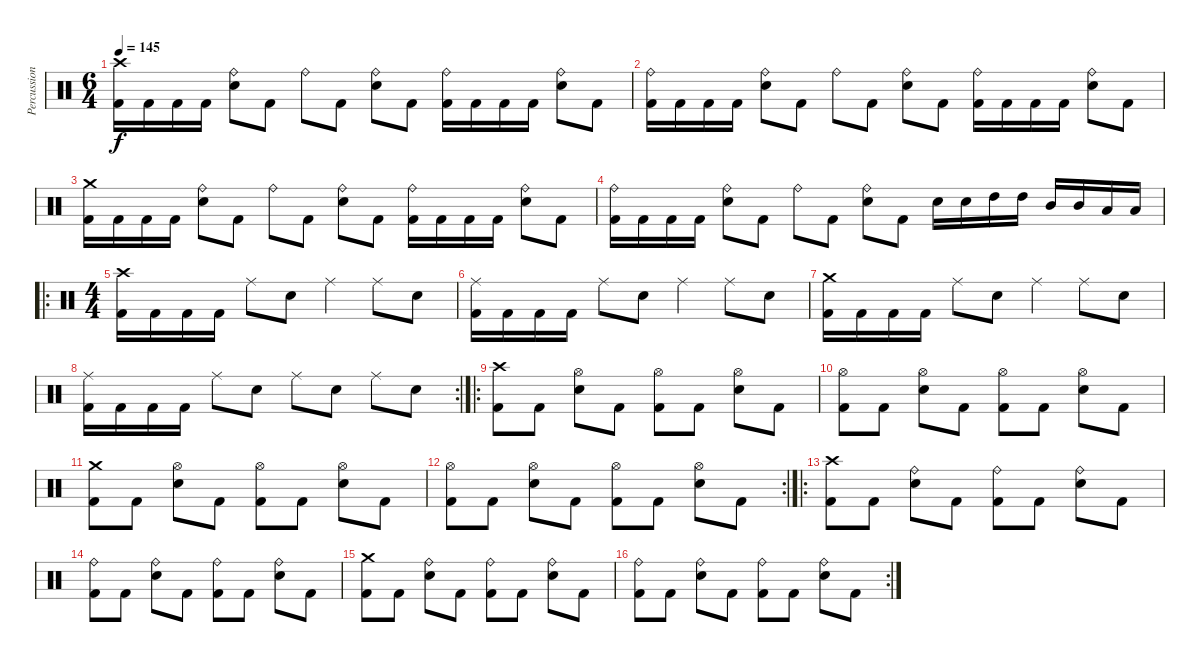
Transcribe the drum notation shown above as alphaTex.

\track ("Percussions" "Percussion") {instrument percussion}
\staff {score}
\articulation defaults
\ts (6 4)
\tempo 145
\clef neutral
\ks c
("Crash high (hit)" "Kick (hit) 2").16{dy f} "Kick (hit) 2".16 "Kick (hit) 2".16 "Kick (hit) 2".16 ("Ride (bell)" "Electric Snare (hit)").8 "Kick (hit) 2".8 "Ride (bell)".8 "Kick (hit) 2".8 ("Ride (bell)" "Electric Snare (hit)").8 "Kick (hit) 2".8 ("Ride (bell)" "Kick (hit) 2").16 "Kick (hit) 2".16 "Kick (hit) 2".16 "Kick (hit) 2".16 ("Ride (bell)" "Electric Snare (hit)").8 "Kick (hit) 2".8 |
("Ride (bell)" "Kick (hit) 2").16 "Kick (hit) 2".16 "Kick (hit) 2".16 "Kick (hit) 2".16 ("Ride (bell)" "Electric Snare (hit)").8 "Kick (hit) 2".8 "Ride (bell)".8 "Kick (hit) 2".8 ("Ride (bell)" "Electric Snare (hit)").8 "Kick (hit) 2".8 ("Ride (bell)" "Kick (hit) 2").16 "Kick (hit) 2".16 "Kick (hit) 2".16 "Kick (hit) 2".16 ("Ride (bell)" "Electric Snare (hit)").8 "Kick (hit) 2".8 |
("Crash medium (hit)" "Kick (hit) 2").16 "Kick (hit) 2".16 "Kick (hit) 2".16 "Kick (hit) 2".16 ("Ride (bell)" "Electric Snare (hit)").8 "Kick (hit) 2".8 "Ride (bell)".8 "Kick (hit) 2".8 ("Ride (bell)" "Electric Snare (hit)").8 "Kick (hit) 2".8 ("Ride (bell)" "Kick (hit) 2").16 "Kick (hit) 2".16 "Kick (hit) 2".16 "Kick (hit) 2".16 ("Ride (bell)" "Electric Snare (hit)").8 "Kick (hit) 2".8 |
("Ride (bell)" "Kick (hit) 2").16 "Kick (hit) 2".16 "Kick (hit) 2".16 "Kick (hit) 2".16 ("Ride (bell)" "Electric Snare (hit)").8 "Kick (hit) 2".8 "Ride (bell)".8 "Kick (hit) 2".8 ("Ride (bell)" "Electric Snare (hit)").8 "Kick (hit) 2".8 "Electric Snare (hit)".16 "Electric Snare (hit)".16 "High Tom (hit)".16 "High Tom (hit)".16 "Mid Tom (hit)".16 "Mid Tom (hit)".16 "Low Tom (hit)".16 "Low Tom (hit)".16 |
\ro
\ts (4 4)
("Crash high (hit)" "Kick (hit) 2").16 "Kick (hit) 2".16 "Kick (hit) 2".16 "Kick (hit) 2".16 "Ride (middle)".8 "Electric Snare (hit)".8 "Ride (middle)".4 "Ride (middle)".8 "Electric Snare (hit)".8 |
("Ride (middle)" "Kick (hit) 2").16 "Kick (hit) 2".16 "Kick (hit) 2".16 "Kick (hit) 2".16 "Ride (middle)".8 "Electric Snare (hit)".8 "Ride (middle)".4 "Ride (middle)".8 "Electric Snare (hit)".8 |
("Crash medium (hit)" "Kick (hit) 2").16 "Kick (hit) 2".16 "Kick (hit) 2".16 "Kick (hit) 2".16 "Ride (middle)".8 "Electric Snare (hit)".8 "Ride (middle)".4 "Ride (middle)".8 "Electric Snare (hit)".8 |
\rc 2
("Ride (middle)" "Kick (hit) 2").16 "Kick (hit) 2".16 "Kick (hit) 2".16 "Kick (hit) 2".16 "Ride (middle)".8 "Electric Snare (hit)".8 "Ride (middle)".8 "Electric Snare (hit)".8 "Ride (middle)".8 "Electric Snare (hit)".8 |
\ro
("Crash high (hit)" "Kick (hit) 2").8 "Kick (hit) 2".8 ("Hi-Hat (open)" "Electric Snare (hit)").8 "Kick (hit) 2".8 ("Hi-Hat (open)" "Kick (hit) 2").8 "Kick (hit) 2".8 ("Hi-Hat (open)" "Electric Snare (hit)").8 "Kick (hit) 2".8 |
("Hi-Hat (open)" "Kick (hit) 2").8 "Kick (hit) 2".8 ("Hi-Hat (open)" "Electric Snare (hit)").8 "Kick (hit) 2".8 ("Hi-Hat (open)" "Kick (hit) 2").8 "Kick (hit) 2".8 ("Hi-Hat (open)" "Electric Snare (hit)").8 "Kick (hit) 2".8 |
("Crash medium (hit)" "Kick (hit) 2").8 "Kick (hit) 2".8 ("Hi-Hat (open)" "Electric Snare (hit)").8 "Kick (hit) 2".8 ("Hi-Hat (open)" "Kick (hit) 2").8 "Kick (hit) 2".8 ("Hi-Hat (open)" "Electric Snare (hit)").8 "Kick (hit) 2".8 |
\rc 2
("Hi-Hat (open)" "Kick (hit) 2").8 "Kick (hit) 2".8 ("Hi-Hat (open)" "Electric Snare (hit)").8 "Kick (hit) 2".8 ("Hi-Hat (open)" "Kick (hit) 2").8 "Kick (hit) 2".8 ("Hi-Hat (open)" "Electric Snare (hit)").8 "Kick (hit) 2".8 |
\ro
("Crash high (hit)" "Kick (hit) 2").8 "Kick (hit) 2".8 ("Ride (bell)" "Electric Snare (hit)").8 "Kick (hit) 2".8 ("Ride (bell)" "Kick (hit) 2").8 "Kick (hit) 2".8 ("Ride (bell)" "Electric Snare (hit)").8 "Kick (hit) 2".8 |
("Ride (bell)" "Kick (hit) 2").8 "Kick (hit) 2".8 ("Ride (bell)" "Electric Snare (hit)").8 "Kick (hit) 2".8 ("Ride (bell)" "Kick (hit) 2").8 "Kick (hit) 2".8 ("Ride (bell)" "Electric Snare (hit)").8 "Kick (hit) 2".8 |
("Crash medium (hit)" "Kick (hit) 2").8 "Kick (hit) 2".8 ("Ride (bell)" "Electric Snare (hit)").8 "Kick (hit) 2".8 ("Ride (bell)" "Kick (hit) 2").8 "Kick (hit) 2".8 ("Ride (bell)" "Electric Snare (hit)").8 "Kick (hit) 2".8 |
\rc 2
("Ride (bell)" "Kick (hit) 2").8 "Kick (hit) 2".8 ("Ride (bell)" "Electric Snare (hit)").8 "Kick (hit) 2".8 ("Ride (bell)" "Kick (hit) 2").8 "Kick (hit) 2".8 ("Ride (bell)" "Electric Snare (hit)").8 "Kick (hit) 2".8
